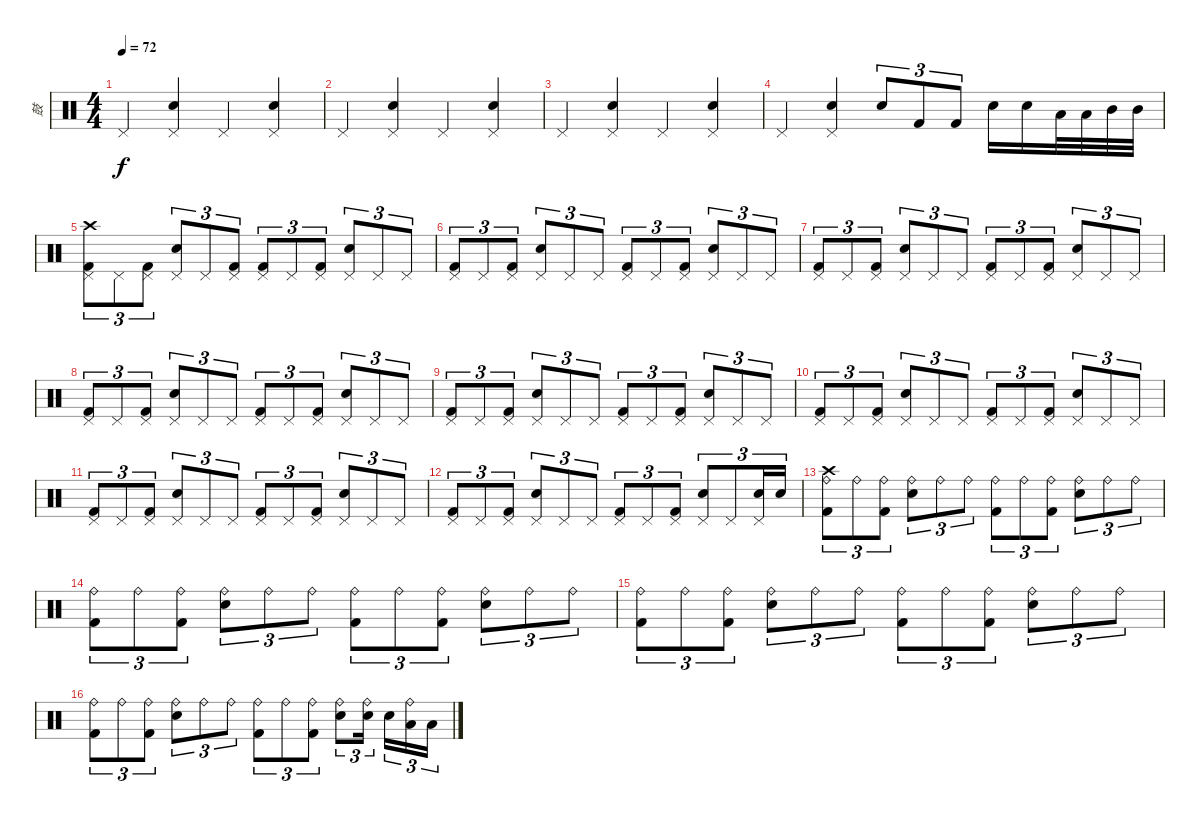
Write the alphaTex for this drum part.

\track ("鼓" "鼓") {instrument percussion}
\staff {score}
\articulation defaults
\ts (4 4)
\tempo 72
\clef neutral
\ks c "Pedal Hi-Hat (hit)".4{dy f}
("Pedal Hi-Hat (hit)" "Electric Snare (hit)").4 "Pedal Hi-Hat (hit)".4 ("Electric Snare (hit)" "Pedal Hi-Hat (hit)").4 |
"Pedal Hi-Hat (hit)".4 ("Pedal Hi-Hat (hit)" "Electric Snare (hit)").4 "Pedal Hi-Hat (hit)".4 ("Electric Snare (hit)" "Pedal Hi-Hat (hit)").4 |
"Pedal Hi-Hat (hit)".4 ("Pedal Hi-Hat (hit)" "Electric Snare (hit)").4 "Pedal Hi-Hat (hit)".4 ("Electric Snare (hit)" "Pedal Hi-Hat (hit)").4 |
"Pedal Hi-Hat (hit)".4 ("Pedal Hi-Hat (hit)" "Electric Snare (hit)").4 "Electric Snare (hit)".8{tu (3 2)} "Kick (hit) 2".8{tu (3 2)} "Kick (hit) 2".8{tu (3 2)} "Electric Snare (hit)".16 "Electric Snare (hit)".16 "Low Tom (hit)".32 "Low Tom (hit)".32 "Mid Tom (hit)".32 "Mid Tom (hit)".32 |
("Pedal Hi-Hat (hit)" "Kick (hit) 2" "Crash high (hit)").8{tu (3 2)} "Pedal Hi-Hat (hit)".8{tu (3 2)} ("Pedal Hi-Hat (hit)" "Kick (hit) 2").8{tu (3 2)} ("Pedal Hi-Hat (hit)" "Electric Snare (hit)").8{tu (3 2)} "Pedal Hi-Hat (hit)".8{tu (3 2)} ("Pedal Hi-Hat (hit)" "Kick (hit) 2").8{tu (3 2)} ("Pedal Hi-Hat (hit)" "Kick (hit) 2").8{tu (3 2)} "Pedal Hi-Hat (hit)".8{tu (3 2)} ("Pedal Hi-Hat (hit)" "Kick (hit) 2").8{tu (3 2)} ("Pedal Hi-Hat (hit)" "Electric Snare (hit)").8{tu (3 2)} "Pedal Hi-Hat (hit)".8{tu (3 2)} "Pedal Hi-Hat (hit)".8{tu (3 2)} |
("Pedal Hi-Hat (hit)" "Kick (hit) 2").8{tu (3 2)} "Pedal Hi-Hat (hit)".8{tu (3 2)} ("Pedal Hi-Hat (hit)" "Kick (hit) 2").8{tu (3 2)} ("Pedal Hi-Hat (hit)" "Electric Snare (hit)").8{tu (3 2)} "Pedal Hi-Hat (hit)".8{tu (3 2)} "Pedal Hi-Hat (hit)".8{tu (3 2)} ("Pedal Hi-Hat (hit)" "Kick (hit) 2").8{tu (3 2)} "Pedal Hi-Hat (hit)".8{tu (3 2)} ("Pedal Hi-Hat (hit)" "Kick (hit) 2").8{tu (3 2)} ("Pedal Hi-Hat (hit)" "Electric Snare (hit)").8{tu (3 2)} "Pedal Hi-Hat (hit)".8{tu (3 2)} "Pedal Hi-Hat (hit)".8{tu (3 2)} |
("Pedal Hi-Hat (hit)" "Kick (hit) 2").8{tu (3 2)} "Pedal Hi-Hat (hit)".8{tu (3 2)} ("Pedal Hi-Hat (hit)" "Kick (hit) 2").8{tu (3 2)} ("Pedal Hi-Hat (hit)" "Electric Snare (hit)").8{tu (3 2)} "Pedal Hi-Hat (hit)".8{tu (3 2)} "Pedal Hi-Hat (hit)".8{tu (3 2)} ("Pedal Hi-Hat (hit)" "Kick (hit) 2").8{tu (3 2)} "Pedal Hi-Hat (hit)".8{tu (3 2)} ("Pedal Hi-Hat (hit)" "Kick (hit) 2").8{tu (3 2)} ("Pedal Hi-Hat (hit)" "Electric Snare (hit)").8{tu (3 2)} "Pedal Hi-Hat (hit)".8{tu (3 2)} "Pedal Hi-Hat (hit)".8{tu (3 2)} |
("Pedal Hi-Hat (hit)" "Kick (hit) 2").8{tu (3 2)} "Pedal Hi-Hat (hit)".8{tu (3 2)} ("Pedal Hi-Hat (hit)" "Kick (hit) 2").8{tu (3 2)} ("Pedal Hi-Hat (hit)" "Electric Snare (hit)").8{tu (3 2)} "Pedal Hi-Hat (hit)".8{tu (3 2)} "Pedal Hi-Hat (hit)".8{tu (3 2)} ("Pedal Hi-Hat (hit)" "Kick (hit) 2").8{tu (3 2)} "Pedal Hi-Hat (hit)".8{tu (3 2)} ("Pedal Hi-Hat (hit)" "Kick (hit) 2").8{tu (3 2)} ("Pedal Hi-Hat (hit)" "Electric Snare (hit)").8{tu (3 2)} "Pedal Hi-Hat (hit)".8{tu (3 2)} "Pedal Hi-Hat (hit)".8{tu (3 2)} |
("Pedal Hi-Hat (hit)" "Kick (hit) 2").8{tu (3 2)} "Pedal Hi-Hat (hit)".8{tu (3 2)} ("Pedal Hi-Hat (hit)" "Kick (hit) 2").8{tu (3 2)} ("Pedal Hi-Hat (hit)" "Electric Snare (hit)").8{tu (3 2)} "Pedal Hi-Hat (hit)".8{tu (3 2)} "Pedal Hi-Hat (hit)".8{tu (3 2)} ("Pedal Hi-Hat (hit)" "Kick (hit) 2").8{tu (3 2)} "Pedal Hi-Hat (hit)".8{tu (3 2)} ("Pedal Hi-Hat (hit)" "Kick (hit) 2").8{tu (3 2)} ("Pedal Hi-Hat (hit)" "Electric Snare (hit)").8{tu (3 2)} "Pedal Hi-Hat (hit)".8{tu (3 2)} "Pedal Hi-Hat (hit)".8{tu (3 2)} |
("Pedal Hi-Hat (hit)" "Kick (hit) 2").8{tu (3 2)} "Pedal Hi-Hat (hit)".8{tu (3 2)} ("Pedal Hi-Hat (hit)" "Kick (hit) 2").8{tu (3 2)} ("Pedal Hi-Hat (hit)" "Electric Snare (hit)").8{tu (3 2)} "Pedal Hi-Hat (hit)".8{tu (3 2)} "Pedal Hi-Hat (hit)".8{tu (3 2)} ("Pedal Hi-Hat (hit)" "Kick (hit) 2").8{tu (3 2)} "Pedal Hi-Hat (hit)".8{tu (3 2)} ("Pedal Hi-Hat (hit)" "Kick (hit) 2").8{tu (3 2)} ("Pedal Hi-Hat (hit)" "Electric Snare (hit)").8{tu (3 2)} "Pedal Hi-Hat (hit)".8{tu (3 2)} "Pedal Hi-Hat (hit)".8{tu (3 2)} |
("Pedal Hi-Hat (hit)" "Kick (hit) 2").8{tu (3 2)} "Pedal Hi-Hat (hit)".8{tu (3 2)} ("Pedal Hi-Hat (hit)" "Kick (hit) 2").8{tu (3 2)} ("Pedal Hi-Hat (hit)" "Electric Snare (hit)").8{tu (3 2)} "Pedal Hi-Hat (hit)".8{tu (3 2)} "Pedal Hi-Hat (hit)".8{tu (3 2)} ("Pedal Hi-Hat (hit)" "Kick (hit) 2").8{tu (3 2)} "Pedal Hi-Hat (hit)".8{tu (3 2)} ("Pedal Hi-Hat (hit)" "Kick (hit) 2").8{tu (3 2)} ("Pedal Hi-Hat (hit)" "Electric Snare (hit)").8{tu (3 2)} "Pedal Hi-Hat (hit)".8{tu (3 2)} "Pedal Hi-Hat (hit)".8{tu (3 2)} |
("Pedal Hi-Hat (hit)" "Kick (hit) 2").8{tu (3 2)} "Pedal Hi-Hat (hit)".8{tu (3 2)} ("Pedal Hi-Hat (hit)" "Kick (hit) 2").8{tu (3 2)} ("Pedal Hi-Hat (hit)" "Electric Snare (hit)").8{tu (3 2)} "Pedal Hi-Hat (hit)".8{tu (3 2)} "Pedal Hi-Hat (hit)".8{tu (3 2)} ("Pedal Hi-Hat (hit)" "Kick (hit) 2").8{tu (3 2)} "Pedal Hi-Hat (hit)".8{tu (3 2)} ("Pedal Hi-Hat (hit)" "Kick (hit) 2").8{tu (3 2)} ("Pedal Hi-Hat (hit)" "Electric Snare (hit)").8{tu (3 2)} "Pedal Hi-Hat (hit)".8{tu (3 2)} ("Pedal Hi-Hat (hit)" "Electric Snare (hit)").16{tu (3 2)} "Electric Snare (hit)".16{tu (3 2)} |
("Ride (bell)" "Kick (hit) 2" "Crash high (hit)").8{tu (3 2)} "Ride (bell)".8{tu (3 2)} ("Ride (bell)" "Kick (hit) 2").8{tu (3 2)} ("Ride (bell)" "Electric Snare (hit)").8{tu (3 2)} "Ride (bell)".8{tu (3 2)} "Ride (bell)".8{tu (3 2)} ("Ride (bell)" "Kick (hit) 2").8{tu (3 2)} "Ride (bell)".8{tu (3 2)} ("Ride (bell)" "Kick (hit) 2").8{tu (3 2)} ("Ride (bell)" "Electric Snare (hit)").8{tu (3 2)} "Ride (bell)".8{tu (3 2)} "Ride (bell)".8{tu (3 2)} |
("Ride (bell)" "Kick (hit) 2").8{tu (3 2)} "Ride (bell)".8{tu (3 2)} ("Ride (bell)" "Kick (hit) 2").8{tu (3 2)} ("Ride (bell)" "Electric Snare (hit)").8{tu (3 2)} "Ride (bell)".8{tu (3 2)} "Ride (bell)".8{tu (3 2)} ("Ride (bell)" "Kick (hit) 2").8{tu (3 2)} "Ride (bell)".8{tu (3 2)} ("Ride (bell)" "Kick (hit) 2").8{tu (3 2)} ("Ride (bell)" "Electric Snare (hit)").8{tu (3 2)} "Ride (bell)".8{tu (3 2)} "Ride (bell)".8{tu (3 2)} |
("Ride (bell)" "Kick (hit) 2").8{tu (3 2)} "Ride (bell)".8{tu (3 2)} ("Ride (bell)" "Kick (hit) 2").8{tu (3 2)} ("Ride (bell)" "Electric Snare (hit)").8{tu (3 2)} "Ride (bell)".8{tu (3 2)} "Ride (bell)".8{tu (3 2)} ("Ride (bell)" "Kick (hit) 2").8{tu (3 2)} "Ride (bell)".8{tu (3 2)} ("Ride (bell)" "Kick (hit) 2").8{tu (3 2)} ("Ride (bell)" "Electric Snare (hit)").8{tu (3 2)} "Ride (bell)".8{tu (3 2)} "Ride (bell)".8{tu (3 2)} |
("Ride (bell)" "Kick (hit) 2").8{tu (3 2)} "Ride (bell)".8{tu (3 2)} ("Ride (bell)" "Kick (hit) 2").8{tu (3 2)} ("Ride (bell)" "Electric Snare (hit)").8{tu (3 2)} "Ride (bell)".8{tu (3 2)} "Ride (bell)".8{tu (3 2)} ("Ride (bell)" "Kick (hit) 2").8{tu (3 2)} "Ride (bell)".8{tu (3 2)} ("Ride (bell)" "Kick (hit) 2").8{tu (3 2)} ("Ride (bell)" "Electric Snare (hit)").8{tu (3 2)} ("Ride (bell)" "Electric Snare (hit)").16{tu (3 2)} "Electric Snare (hit)".16{tu (3 2)} ("Ride (bell)" "Low Tom (hit)").16{tu (3 2)} "Low Tom (hit)".16{tu (3 2)}
